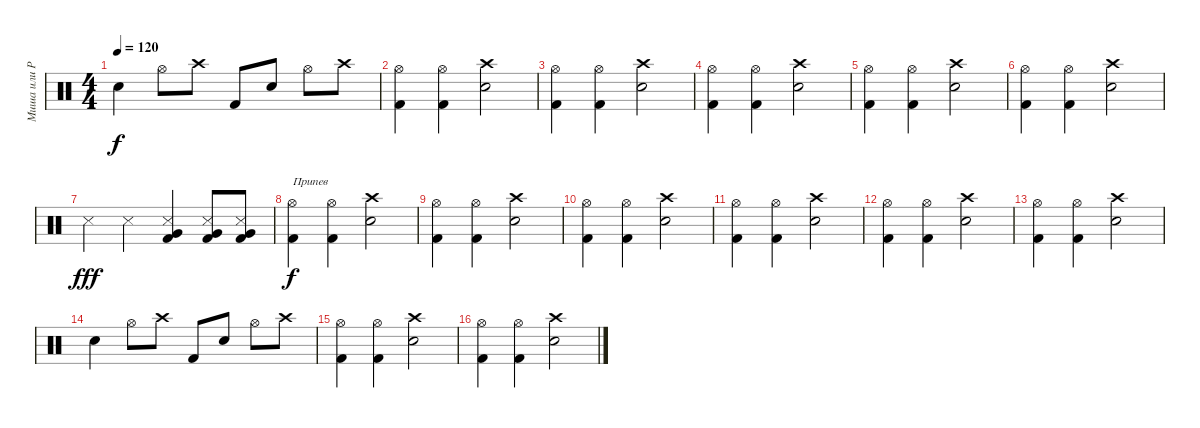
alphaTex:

\track ("Миша или Рома" "Миша или Р") {instrument percussion}
\staff {score}
\articulation defaults
\ts (4 4)
\tempo 120
\clef neutral
\ks c "Snare (hit) 2".4{dy f} "Hi-Hat (open)".8 "Crash high (hit)".8 "Kick (hit) 2".8 "Snare (hit) 2".8 "Hi-Hat (open)".8 "Crash high (hit)".8
|
("Hi-Hat (open)" "Kick (hit) 2").4 ("Hi-Hat (open)" "Kick (hit) 2").4 ("Crash high (hit)" "Snare (hit) 2").2 |
("Hi-Hat (open)" "Kick (hit) 2").4 ("Hi-Hat (open)" "Kick (hit) 2").4 ("Crash high (hit)" "Snare (hit) 2").2 |
("Hi-Hat (open)" "Kick (hit) 2").4 ("Hi-Hat (open)" "Kick (hit) 2").4 ("Crash high (hit)" "Snare (hit) 2").2 |
("Hi-Hat (open)" "Kick (hit) 2").4 ("Hi-Hat (open)" "Kick (hit) 2").4 ("Crash high (hit)" "Snare (hit) 2").2 |
("Hi-Hat (open)" "Kick (hit) 2").4 ("Hi-Hat (open)" "Kick (hit) 2").4 ("Crash high (hit)" "Snare (hit) 2").2 |
"Metronome (hit)".4{dy fff} "Metronome (hit)".4 ("Metronome (hit)" "Very Low Tom (hit)" "Kick (hit) 2").4 ("Metronome (hit)" "Very Low Tom (hit)" "Kick (hit) 2").8 ("Metronome (hit)" "Very Low Tom (hit)" "Kick (hit) 2").8 |
("Hi-Hat (open)" "Kick (hit) 2").4{txt "Припев" dy f} ("Hi-Hat (open)" "Kick (hit) 2").4 ("Crash high (hit)" "Snare (hit) 2").2 |
("Hi-Hat (open)" "Kick (hit) 2").4 ("Hi-Hat (open)" "Kick (hit) 2").4 ("Crash high (hit)" "Snare (hit) 2").2 |
("Hi-Hat (open)" "Kick (hit) 2").4 ("Hi-Hat (open)" "Kick (hit) 2").4 ("Crash high (hit)" "Snare (hit) 2").2 |
("Hi-Hat (open)" "Kick (hit) 2").4 ("Hi-Hat (open)" "Kick (hit) 2").4 ("Crash high (hit)" "Snare (hit) 2").2 |
("Hi-Hat (open)" "Kick (hit) 2").4 ("Hi-Hat (open)" "Kick (hit) 2").4 ("Crash high (hit)" "Snare (hit) 2").2 |
("Hi-Hat (open)" "Kick (hit) 2").4 ("Hi-Hat (open)" "Kick (hit) 2").4 ("Crash high (hit)" "Snare (hit) 2").2 |
"Snare (hit) 2".4 "Hi-Hat (open)".8 "Crash high (hit)".8 "Kick (hit) 2".8 "Snare (hit) 2".8 "Hi-Hat (open)".8 "Crash high (hit)".8 |
("Hi-Hat (open)" "Kick (hit) 2").4 ("Hi-Hat (open)" "Kick (hit) 2").4 ("Crash high (hit)" "Snare (hit) 2").2 |
("Hi-Hat (open)" "Kick (hit) 2").4 ("Hi-Hat (open)" "Kick (hit) 2").4 ("Crash high (hit)" "Snare (hit) 2").2
